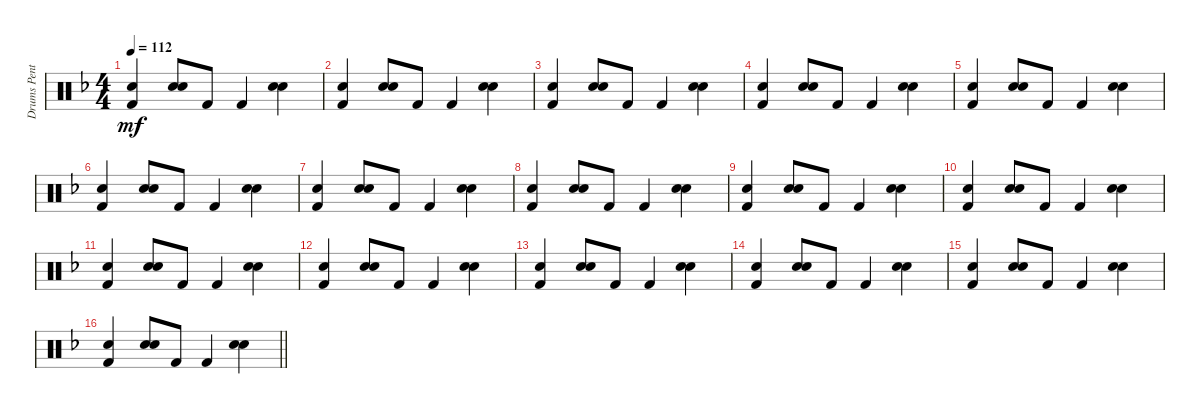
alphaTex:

\track ("Drums Pentti Glan" "Drums Pent") {instrument percussion}
\staff {score}
\articulation defaults
\ts (4 4)
\tempo 112
\clef neutral
\ks f
("Hand Clap (hit)" "Kick (hit) 2").4{dy mf} ("Electric Snare (hit)" "Snare (hit) 2").8 "Kick (hit) 2".8 "Kick (hit) 2".4 ("Electric Snare (hit)" "Snare (hit) 2").4 |
("Hand Clap (hit)" "Kick (hit) 2").4 ("Electric Snare (hit)" "Snare (hit) 2").8 "Kick (hit) 2".8 "Kick (hit) 2".4 ("Electric Snare (hit)" "Snare (hit) 2").4 |
("Hand Clap (hit)" "Kick (hit) 2").4 ("Electric Snare (hit)" "Snare (hit) 2").8 "Kick (hit) 2".8 "Kick (hit) 2".4 ("Electric Snare (hit)" "Snare (hit) 2").4 |
("Hand Clap (hit)" "Kick (hit) 2").4 ("Electric Snare (hit)" "Snare (hit) 2").8 "Kick (hit) 2".8 "Kick (hit) 2".4 ("Electric Snare (hit)" "Snare (hit) 2").4 |
("Hand Clap (hit)" "Kick (hit) 2").4 ("Electric Snare (hit)" "Snare (hit) 2").8 "Kick (hit) 2".8 "Kick (hit) 2".4 ("Electric Snare (hit)" "Snare (hit) 2").4 |
("Hand Clap (hit)" "Kick (hit) 2").4 ("Electric Snare (hit)" "Snare (hit) 2").8 "Kick (hit) 2".8 "Kick (hit) 2".4 ("Electric Snare (hit)" "Snare (hit) 2").4 |
("Hand Clap (hit)" "Kick (hit) 2").4 ("Electric Snare (hit)" "Snare (hit) 2").8 "Kick (hit) 2".8 "Kick (hit) 2".4 ("Electric Snare (hit)" "Snare (hit) 2").4 |
("Hand Clap (hit)" "Kick (hit) 2").4 ("Electric Snare (hit)" "Snare (hit) 2").8 "Kick (hit) 2".8 "Kick (hit) 2".4 ("Electric Snare (hit)" "Snare (hit) 2").4 |
("Hand Clap (hit)" "Kick (hit) 2").4 ("Electric Snare (hit)" "Snare (hit) 2").8 "Kick (hit) 2".8 "Kick (hit) 2".4 ("Electric Snare (hit)" "Snare (hit) 2").4 |
("Hand Clap (hit)" "Kick (hit) 2").4 ("Electric Snare (hit)" "Snare (hit) 2").8 "Kick (hit) 2".8 "Kick (hit) 2".4 ("Electric Snare (hit)" "Snare (hit) 2").4 |
("Hand Clap (hit)" "Kick (hit) 2").4 ("Electric Snare (hit)" "Snare (hit) 2").8 "Kick (hit) 2".8 "Kick (hit) 2".4 ("Electric Snare (hit)" "Snare (hit) 2").4 |
("Hand Clap (hit)" "Kick (hit) 2").4 ("Electric Snare (hit)" "Snare (hit) 2").8 "Kick (hit) 2".8 "Kick (hit) 2".4 ("Electric Snare (hit)" "Snare (hit) 2").4 |
("Hand Clap (hit)" "Kick (hit) 2").4 ("Electric Snare (hit)" "Snare (hit) 2").8 "Kick (hit) 2".8 "Kick (hit) 2".4 ("Electric Snare (hit)" "Snare (hit) 2").4 |
("Hand Clap (hit)" "Kick (hit) 2").4 ("Electric Snare (hit)" "Snare (hit) 2").8 "Kick (hit) 2".8 "Kick (hit) 2".4 ("Electric Snare (hit)" "Snare (hit) 2").4 |
("Hand Clap (hit)" "Kick (hit) 2").4 ("Electric Snare (hit)" "Snare (hit) 2").8 "Kick (hit) 2".8 "Kick (hit) 2".4 ("Electric Snare (hit)" "Snare (hit) 2").4 |
\barLineRight lightlight
("Hand Clap (hit)" "Kick (hit) 2").4 ("Electric Snare (hit)" "Snare (hit) 2").8 "Kick (hit) 2".8 "Kick (hit) 2".4 ("Electric Snare (hit)" "Snare (hit) 2").4
